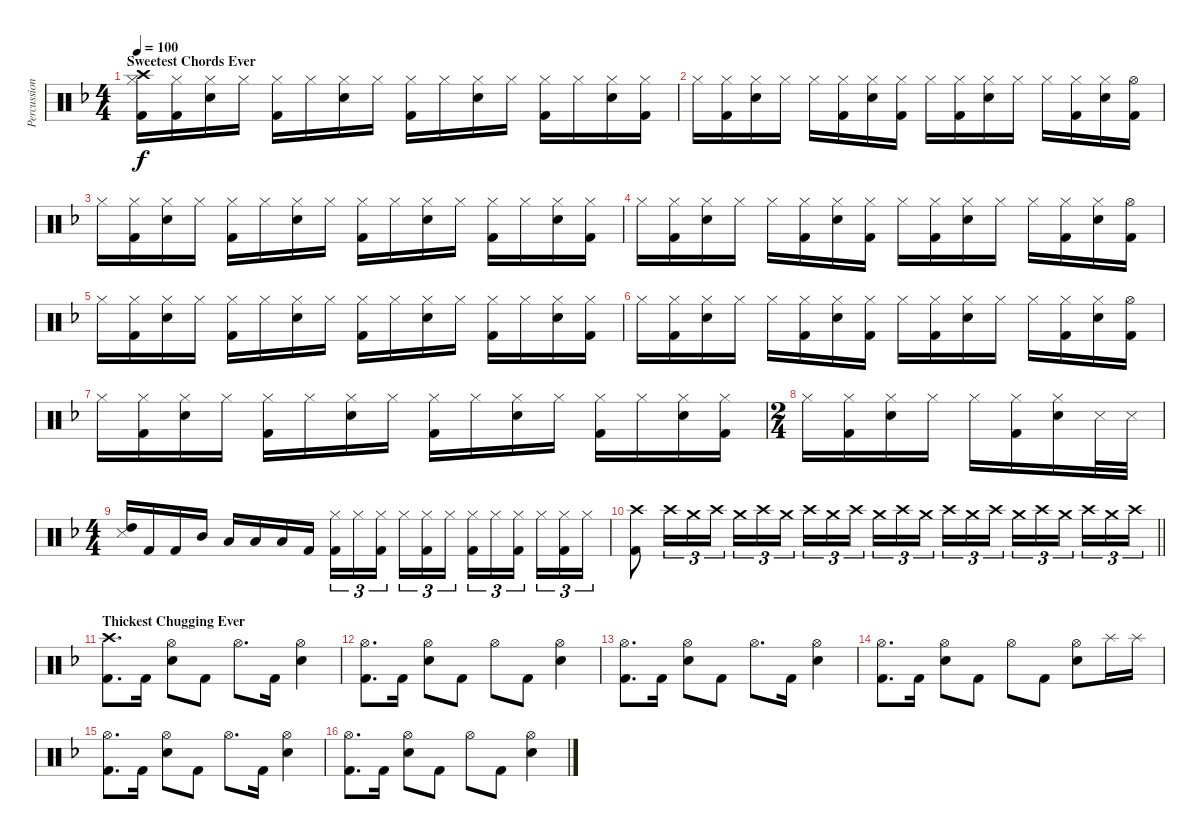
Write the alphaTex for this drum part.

\track ("Percussion" "Percussion") {instrument percussion}
\staff {score}
\articulation defaults
\ts (4 4)
\section ("" "Sweetest Chords Ever")
\tempo 100
\clef neutral
\ks dminor
("Hi-Hat (closed)" "Crash high (hit)" "Kick (hit) 2").16{dy f} ("Hi-Hat (closed)" "Kick (hit) 2").16 ("Hi-Hat (closed)" "Snare (hit) 2").16 "Hi-Hat (closed)".16 ("Hi-Hat (closed)" "Kick (hit) 2").16 "Hi-Hat (closed)".16 ("Hi-Hat (closed)" "Snare (hit) 2").16 "Hi-Hat (closed)".16 ("Hi-Hat (closed)" "Kick (hit) 2").16 "Hi-Hat (closed)".16 ("Hi-Hat (closed)" "Snare (hit) 2").16 "Hi-Hat (closed)".16 ("Hi-Hat (closed)" "Kick (hit) 2").16 "Hi-Hat (closed)".16 ("Hi-Hat (closed)" "Snare (hit) 2").16 ("Hi-Hat (closed)" "Kick (hit) 2").16 |
"Hi-Hat (closed)".16 ("Hi-Hat (closed)" "Kick (hit) 2").16 ("Hi-Hat (closed)" "Snare (hit) 2").16 "Hi-Hat (closed)".16 "Hi-Hat (closed)".16 ("Hi-Hat (closed)" "Kick (hit) 2").16 ("Hi-Hat (closed)" "Snare (hit) 2").16 ("Hi-Hat (closed)" "Kick (hit) 2").16 "Hi-Hat (closed)".16 ("Hi-Hat (closed)" "Kick (hit) 2").16 ("Hi-Hat (closed)" "Snare (hit) 2").16 "Hi-Hat (closed)".16 "Hi-Hat (closed)".16 ("Hi-Hat (closed)" "Kick (hit) 2").16 ("Hi-Hat (closed)" "Snare (hit) 2").16 ("Hi-Hat (open)" "Kick (hit) 2").16 |
"Hi-Hat (closed)".16 ("Hi-Hat (closed)" "Kick (hit) 2").16 ("Hi-Hat (closed)" "Snare (hit) 2").16 "Hi-Hat (closed)".16 ("Hi-Hat (closed)" "Kick (hit) 2").16 "Hi-Hat (closed)".16 ("Hi-Hat (closed)" "Snare (hit) 2").16 "Hi-Hat (closed)".16 ("Hi-Hat (closed)" "Kick (hit) 2").16 "Hi-Hat (closed)".16 ("Hi-Hat (closed)" "Snare (hit) 2").16 "Hi-Hat (closed)".16 ("Hi-Hat (closed)" "Kick (hit) 2").16 "Hi-Hat (closed)".16 ("Hi-Hat (closed)" "Snare (hit) 2").16 ("Hi-Hat (closed)" "Kick (hit) 2").16 |
"Hi-Hat (closed)".16 ("Hi-Hat (closed)" "Kick (hit) 2").16 ("Hi-Hat (closed)" "Snare (hit) 2").16 "Hi-Hat (closed)".16 "Hi-Hat (closed)".16 ("Hi-Hat (closed)" "Kick (hit) 2").16 ("Hi-Hat (closed)" "Snare (hit) 2").16 ("Hi-Hat (closed)" "Kick (hit) 2").16 "Hi-Hat (closed)".16 ("Hi-Hat (closed)" "Kick (hit) 2").16 ("Hi-Hat (closed)" "Snare (hit) 2").16 "Hi-Hat (closed)".16 "Hi-Hat (closed)".16 ("Hi-Hat (closed)" "Kick (hit) 2").16 ("Hi-Hat (closed)" "Snare (hit) 2").16 ("Hi-Hat (open)" "Kick (hit) 2").16 |
"Hi-Hat (closed)".16 ("Hi-Hat (closed)" "Kick (hit) 2").16 ("Hi-Hat (closed)" "Snare (hit) 2").16 "Hi-Hat (closed)".16 ("Hi-Hat (closed)" "Kick (hit) 2").16 "Hi-Hat (closed)".16 ("Hi-Hat (closed)" "Snare (hit) 2").16 "Hi-Hat (closed)".16 ("Hi-Hat (closed)" "Kick (hit) 2").16 "Hi-Hat (closed)".16 ("Hi-Hat (closed)" "Snare (hit) 2").16 "Hi-Hat (closed)".16 ("Hi-Hat (closed)" "Kick (hit) 2").16 "Hi-Hat (closed)".16 ("Hi-Hat (closed)" "Snare (hit) 2").16 ("Hi-Hat (closed)" "Kick (hit) 2").16 |
"Hi-Hat (closed)".16 ("Hi-Hat (closed)" "Kick (hit) 2").16 ("Hi-Hat (closed)" "Snare (hit) 2").16 "Hi-Hat (closed)".16 "Hi-Hat (closed)".16 ("Hi-Hat (closed)" "Kick (hit) 2").16 ("Hi-Hat (closed)" "Snare (hit) 2").16 ("Hi-Hat (closed)" "Kick (hit) 2").16 "Hi-Hat (closed)".16 ("Hi-Hat (closed)" "Kick (hit) 2").16 ("Hi-Hat (closed)" "Snare (hit) 2").16 "Hi-Hat (closed)".16 "Hi-Hat (closed)".16 ("Hi-Hat (closed)" "Kick (hit) 2").16 ("Hi-Hat (closed)" "Snare (hit) 2").16 ("Hi-Hat (open)" "Kick (hit) 2").16 |
"Hi-Hat (closed)".16 ("Hi-Hat (closed)" "Kick (hit) 2").16 ("Hi-Hat (closed)" "Snare (hit) 2").16 "Hi-Hat (closed)".16 ("Hi-Hat (closed)" "Kick (hit) 2").16 "Hi-Hat (closed)".16 ("Hi-Hat (closed)" "Snare (hit) 2").16 "Hi-Hat (closed)".16 ("Hi-Hat (closed)" "Kick (hit) 2").16 "Hi-Hat (closed)".16 ("Hi-Hat (closed)" "Snare (hit) 2").16 "Hi-Hat (closed)".16 ("Hi-Hat (closed)" "Kick (hit) 2").16 "Hi-Hat (closed)".16 ("Hi-Hat (closed)" "Snare (hit) 2").16 ("Hi-Hat (closed)" "Kick (hit) 2").16 |
\ts (2 4)
"Hi-Hat (closed)".16 ("Hi-Hat (closed)" "Kick (hit) 2").16 ("Hi-Hat (closed)" "Snare (hit) 2").16 "Hi-Hat (closed)".16 "Hi-Hat (closed)".16 ("Hi-Hat (closed)" "Kick (hit) 2").16 ("Hi-Hat (closed)" "Snare (hit) 2").16 "Snare (side stick) 3".32 "Snare (side stick) 3".32 |
\ts (4 4)
("Snare (side stick) 3" "High Tom (hit)").16 "Kick (hit) 2".16 "Kick (hit) 2".16 "Mid Tom (hit)".16 "Low Tom (hit)".16 "Low Tom (hit)".16 "Low Floor Tom (hit)".16 "Kick (hit) 2".16 ("Hi-Hat (closed)" "Kick (hit) 2").16{tu (3 2)} "Hi-Hat (closed)".16{tu (3 2)} ("Hi-Hat (closed)" "Kick (hit) 2").16{tu (3 2) beam splitsecondary} "Hi-Hat (closed)".16{tu (3 2)} ("Hi-Hat (closed)" "Kick (hit) 2").16{tu (3 2)} "Hi-Hat (closed)".16{tu (3 2)} ("Hi-Hat (closed)" "Kick (hit) 2").16{tu (3 2)} "Hi-Hat (closed)".16{tu (3 2)} ("Hi-Hat (closed)" "Kick (hit) 2").16{tu (3 2) beam splitsecondary} "Hi-Hat (closed)".16{tu (3 2)} ("Hi-Hat (closed)" "Kick (hit) 2").16{tu (3 2)} "Hi-Hat (closed)".16{tu (3 2)} |
\barLineRight lightlight
("Crash high (hit)" "Kick (hit) 2").8{volume 4} "Crash high (hit)".16{tu (3 2)} "Crash medium (hit)".16{tu (3 2)} "Crash high (hit)".16{tu (3 2)} "Crash medium (hit)".16{tu (3 2) volume 10} "Crash high (hit)".16{tu (3 2)} "Crash medium (hit)".16{tu (3 2) beam splitsecondary} "Crash high (hit)".16{tu (3 2)} "Crash medium (hit)".16{tu (3 2)} "Crash high (hit)".16{tu (3 2)} "Crash medium (hit)".16{tu (3 2)} "Crash high (hit)".16{tu (3 2)} "Crash medium (hit)".16{tu (3 2) beam splitsecondary} "Crash high (hit)".16{tu (3 2)} "Crash medium (hit)".16{tu (3 2)} "Crash high (hit)".16{tu (3 2)} "Crash medium (hit)".16{tu (3 2)} "Crash high (hit)".16{tu (3 2)} "Crash medium (hit)".16{tu (3 2) beam splitsecondary} "Crash high (hit)".16{tu (3 2)} "Crash medium (hit)".16{tu (3 2)} "Crash high (hit)".16{tu (3 2)} |
\section ("" "Thickest Chugging Ever")
("Crash high (hit)" "Kick (hit) 2").8{d volume 12} "Kick (hit) 2".16 ("Hi-Hat (open)" "Snare (hit) 2").8 "Kick (hit) 2".8 "Hi-Hat (open)".8{d} "Kick (hit) 2".16 ("Hi-Hat (open)" "Snare (hit) 2").4 |
("Hi-Hat (open)" "Kick (hit) 2").8{d} "Kick (hit) 2".16 ("Hi-Hat (open)" "Snare (hit) 2").8 "Kick (hit) 2".8 "Hi-Hat (open)".8 "Kick (hit) 2".8 ("Hi-Hat (open)" "Snare (hit) 2").4 |
("Hi-Hat (open)" "Kick (hit) 2").8{d} "Kick (hit) 2".16 ("Hi-Hat (open)" "Snare (hit) 2").8 "Kick (hit) 2".8 "Hi-Hat (open)".8{d} "Kick (hit) 2".16 ("Hi-Hat (open)" "Snare (hit) 2").4 |
("Hi-Hat (open)" "Kick (hit) 2").8{d} "Kick (hit) 2".16 ("Hi-Hat (open)" "Snare (hit) 2").8 "Kick (hit) 2".8 "Hi-Hat (open)".8 "Kick (hit) 2".8 ("Hi-Hat (open)" "Snare (hit) 2").8 "Splash (hit)".16 "Splash (hit)".16 |
("Hi-Hat (open)" "Kick (hit) 2").8{d} "Kick (hit) 2".16 ("Hi-Hat (open)" "Snare (hit) 2").8 "Kick (hit) 2".8 "Hi-Hat (open)".8{d} "Kick (hit) 2".16 ("Hi-Hat (open)" "Snare (hit) 2").4 |
("Hi-Hat (open)" "Kick (hit) 2").8{d} "Kick (hit) 2".16 ("Hi-Hat (open)" "Snare (hit) 2").8 "Kick (hit) 2".8 "Hi-Hat (open)".8 "Kick (hit) 2".8 ("Hi-Hat (open)" "Snare (hit) 2").4
